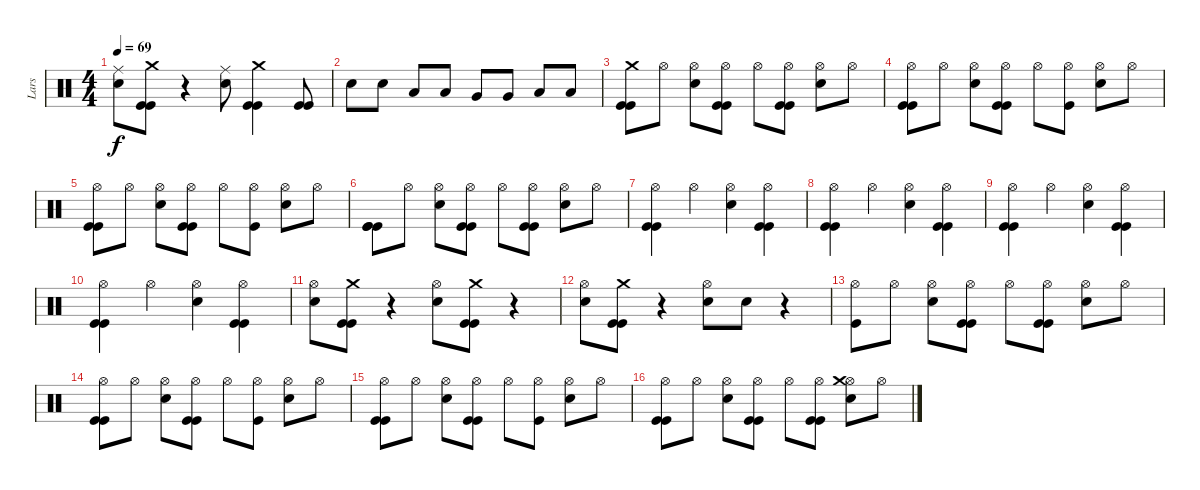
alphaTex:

\track ("Lars" "Lars") {instrument percussion}
\staff {score}
\articulation defaults
\ts (4 4)
\tempo 69
\clef neutral
\ks c
("Ride (middle)" "Electric Snare (hit)").8{dy f} ("Kick (hit)" "Kick (hit)" "Crash medium (hit)").8 r.4 ("Ride (middle)" "Electric Snare (hit)").8 ("Kick (hit)" "Kick (hit)" "Crash medium (hit)").4 ("Kick (hit)" "Kick (hit)").8 |
"Electric Snare (hit)".8 "Electric Snare (hit)".8 "Low Tom (hit)".8 "Low Tom (hit)".8 "Very Low Tom (hit)".8 "Very Low Tom (hit)".8 "Low Floor Tom (hit)".8 "Low Floor Tom (hit)".8 |
("Kick (hit)" "Kick (hit)" "Crash medium (hit)").8 "Hi-Hat (open)".8 ("Hi-Hat (open)" "Electric Snare (hit)").8 ("Hi-Hat (open)" "Kick (hit)" "Kick (hit)").8 "Hi-Hat (open)".8 ("Hi-Hat (open)" "Kick (hit)" "Kick (hit)").8 ("Hi-Hat (open)" "Electric Snare (hit)").8 "Hi-Hat (open)".8 |
("Hi-Hat (open)" "Kick (hit)" "Kick (hit)").8 "Hi-Hat (open)".8 ("Hi-Hat (open)" "Electric Snare (hit)").8 ("Hi-Hat (open)" "Kick (hit)" "Kick (hit)").8 "Hi-Hat (open)".8 ("Hi-Hat (open)" "Kick (hit)").8 ("Hi-Hat (open)" "Electric Snare (hit)").8 "Hi-Hat (open)".8 |
("Hi-Hat (open)" "Kick (hit)" "Kick (hit)").8 "Hi-Hat (open)".8 ("Hi-Hat (open)" "Electric Snare (hit)").8 ("Hi-Hat (open)" "Kick (hit)" "Kick (hit)").8 "Hi-Hat (open)".8 ("Hi-Hat (open)" "Kick (hit)").8 ("Hi-Hat (open)" "Electric Snare (hit)").8 "Hi-Hat (open)".8 |
("Kick (hit)" "Kick (hit)" "Kick (hit)").8 "Hi-Hat (open)".8 ("Hi-Hat (open)" "Electric Snare (hit)").8 ("Hi-Hat (open)" "Kick (hit)" "Kick (hit)").8 "Hi-Hat (open)".8 ("Hi-Hat (open)" "Kick (hit)" "Kick (hit)").8 ("Hi-Hat (open)" "Electric Snare (hit)").8 "Hi-Hat (open)".8 |
("Hi-Hat (open)" "Kick (hit)" "Kick (hit)").4 "Hi-Hat (open)".4 ("Hi-Hat (open)" "Electric Snare (hit)").4 ("Hi-Hat (open)" "Kick (hit)" "Kick (hit)").4 |
("Hi-Hat (open)" "Kick (hit)" "Kick (hit)").4 "Hi-Hat (open)".4 ("Hi-Hat (open)" "Electric Snare (hit)").4 ("Hi-Hat (open)" "Kick (hit)" "Kick (hit)").4 |
("Hi-Hat (open)" "Kick (hit)" "Kick (hit)").4 "Hi-Hat (open)".4 ("Hi-Hat (open)" "Electric Snare (hit)").4 ("Hi-Hat (open)" "Kick (hit)" "Kick (hit)").4 |
("Hi-Hat (open)" "Kick (hit)" "Kick (hit)").4 "Hi-Hat (open)".4 ("Hi-Hat (open)" "Electric Snare (hit)").4 ("Hi-Hat (open)" "Kick (hit)" "Kick (hit)").4 |
("Hi-Hat (open)" "Electric Snare (hit)").8 ("Kick (hit)" "Kick (hit)" "Crash medium (hit)").8 r.4 ("Hi-Hat (open)" "Electric Snare (hit)").8 ("Kick (hit)" "Kick (hit)" "Crash medium (hit)").8 r.4 |
("Hi-Hat (open)" "Electric Snare (hit)").8 ("Kick (hit)" "Kick (hit)" "Crash medium (hit)").8 r.4 ("Hi-Hat (open)" "Electric Snare (hit)").8 "Electric Snare (hit)".8 r.4 |
("Hi-Hat (open)" "Kick (hit)").8 "Hi-Hat (open)".8 ("Hi-Hat (open)" "Electric Snare (hit)").8 ("Hi-Hat (open)" "Kick (hit)" "Kick (hit)").8 "Hi-Hat (open)".8 ("Hi-Hat (open)" "Kick (hit)" "Kick (hit)").8 ("Hi-Hat (open)" "Electric Snare (hit)").8 "Hi-Hat (open)".8 |
("Hi-Hat (open)" "Kick (hit)" "Kick (hit)").8 "Hi-Hat (open)".8 ("Hi-Hat (open)" "Electric Snare (hit)").8 ("Hi-Hat (open)" "Kick (hit)" "Kick (hit)").8 "Hi-Hat (open)".8 ("Hi-Hat (open)" "Kick (hit)").8 ("Hi-Hat (open)" "Electric Snare (hit)").8 "Hi-Hat (open)".8 |
("Hi-Hat (open)" "Kick (hit)" "Kick (hit)").8 "Hi-Hat (open)".8 ("Hi-Hat (open)" "Electric Snare (hit)").8 ("Hi-Hat (open)" "Kick (hit)" "Kick (hit)").8 "Hi-Hat (open)".8 ("Hi-Hat (open)" "Kick (hit)").8 ("Hi-Hat (open)" "Electric Snare (hit)").8 "Hi-Hat (open)".8 |
("Hi-Hat (open)" "Kick (hit)" "Kick (hit)").8 "Hi-Hat (open)".8 ("Hi-Hat (open)" "Electric Snare (hit)").8 ("Hi-Hat (open)" "Kick (hit)" "Kick (hit)").8 "Hi-Hat (open)".8 ("Hi-Hat (open)" "Kick (hit)" "Kick (hit)").8 ("Hi-Hat (open)" "Electric Snare (hit)" "Crash medium (hit)").8 "Hi-Hat (open)".8
